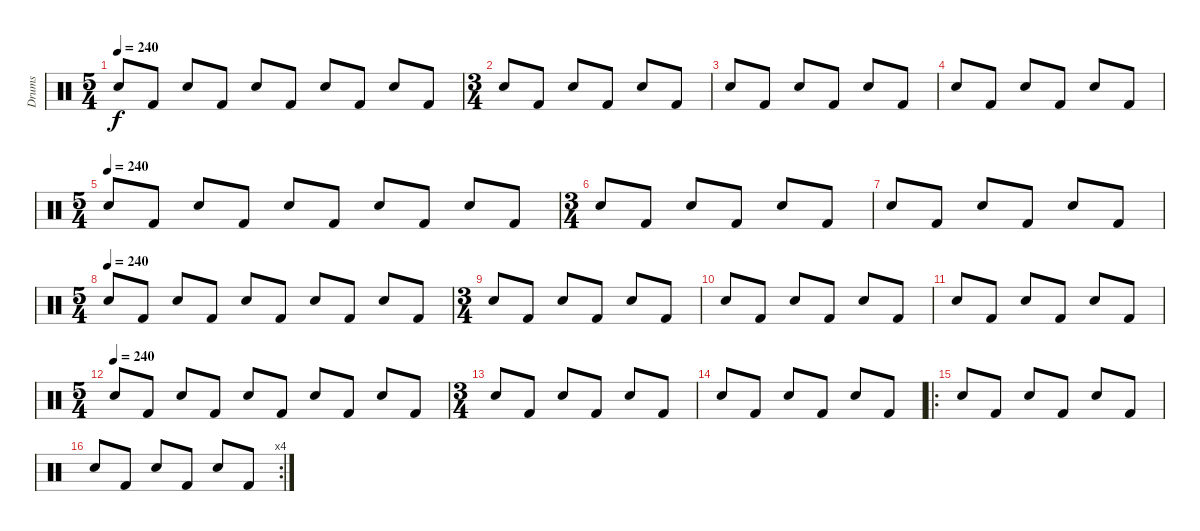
\track ("Drums" "Drums") {instrument percussion}
\staff {score}
\articulation defaults
\ts (5 4)
\tempo 250
\tempo 240
\clef neutral
\ks c "Electric Snare (hit)".8{dy f} "Kick (hit) 2".8 "Electric Snare (hit)".8 "Kick (hit) 2".8 "Electric Snare (hit)".8 "Kick (hit) 2".8 "Electric Snare (hit)".8 "Kick (hit) 2".8 "Electric Snare (hit)".8 "Kick (hit) 2".8
|
\ts (3 4)
"Electric Snare (hit)".8 "Kick (hit) 2".8 "Electric Snare (hit)".8 "Kick (hit) 2".8 "Electric Snare (hit)".8 "Kick (hit) 2".8 |
"Electric Snare (hit)".8 "Kick (hit) 2".8 "Electric Snare (hit)".8 "Kick (hit) 2".8 "Electric Snare (hit)".8 "Kick (hit) 2".8 |
"Electric Snare (hit)".8 "Kick (hit) 2".8 "Electric Snare (hit)".8 "Kick (hit) 2".8 "Electric Snare (hit)".8 "Kick (hit) 2".8 |
\ts (5 4)
\tempo (240)
"Electric Snare (hit)".8 "Kick (hit) 2".8 "Electric Snare (hit)".8 "Kick (hit) 2".8 "Electric Snare (hit)".8 "Kick (hit) 2".8 "Electric Snare (hit)".8 "Kick (hit) 2".8 "Electric Snare (hit)".8 "Kick (hit) 2".8 |
\ts (3 4)
"Electric Snare (hit)".8 "Kick (hit) 2".8 "Electric Snare (hit)".8 "Kick (hit) 2".8 "Electric Snare (hit)".8 "Kick (hit) 2".8 |
"Electric Snare (hit)".8 "Kick (hit) 2".8 "Electric Snare (hit)".8 "Kick (hit) 2".8 "Electric Snare (hit)".8 "Kick (hit) 2".8 |
\ts (5 4)
\tempo (240)
"Electric Snare (hit)".8 "Kick (hit) 2".8 "Electric Snare (hit)".8 "Kick (hit) 2".8 "Electric Snare (hit)".8 "Kick (hit) 2".8 "Electric Snare (hit)".8 "Kick (hit) 2".8 "Electric Snare (hit)".8 "Kick (hit) 2".8 |
\ts (3 4)
"Electric Snare (hit)".8 "Kick (hit) 2".8 "Electric Snare (hit)".8 "Kick (hit) 2".8 "Electric Snare (hit)".8 "Kick (hit) 2".8 |
"Electric Snare (hit)".8 "Kick (hit) 2".8 "Electric Snare (hit)".8 "Kick (hit) 2".8 "Electric Snare (hit)".8 "Kick (hit) 2".8 |
"Electric Snare (hit)".8 "Kick (hit) 2".8 "Electric Snare (hit)".8 "Kick (hit) 2".8 "Electric Snare (hit)".8 "Kick (hit) 2".8 |
\ts (5 4)
\tempo (240)
"Electric Snare (hit)".8 "Kick (hit) 2".8 "Electric Snare (hit)".8 "Kick (hit) 2".8 "Electric Snare (hit)".8 "Kick (hit) 2".8 "Electric Snare (hit)".8 "Kick (hit) 2".8 "Electric Snare (hit)".8 "Kick (hit) 2".8 |
\ts (3 4)
"Electric Snare (hit)".8 "Kick (hit) 2".8 "Electric Snare (hit)".8 "Kick (hit) 2".8 "Electric Snare (hit)".8 "Kick (hit) 2".8 |
"Electric Snare (hit)".8 "Kick (hit) 2".8 "Electric Snare (hit)".8 "Kick (hit) 2".8 "Electric Snare (hit)".8 "Kick (hit) 2".8 |
\ro "Electric Snare (hit)".8 "Kick (hit) 2".8 "Electric Snare (hit)".8 "Kick (hit) 2".8 "Electric Snare (hit)".8 "Kick (hit) 2".8
|
\rc 4 "Electric Snare (hit)".8 "Kick (hit) 2".8 "Electric Snare (hit)".8 "Kick (hit) 2".8 "Electric Snare (hit)".8 "Kick (hit) 2".8
